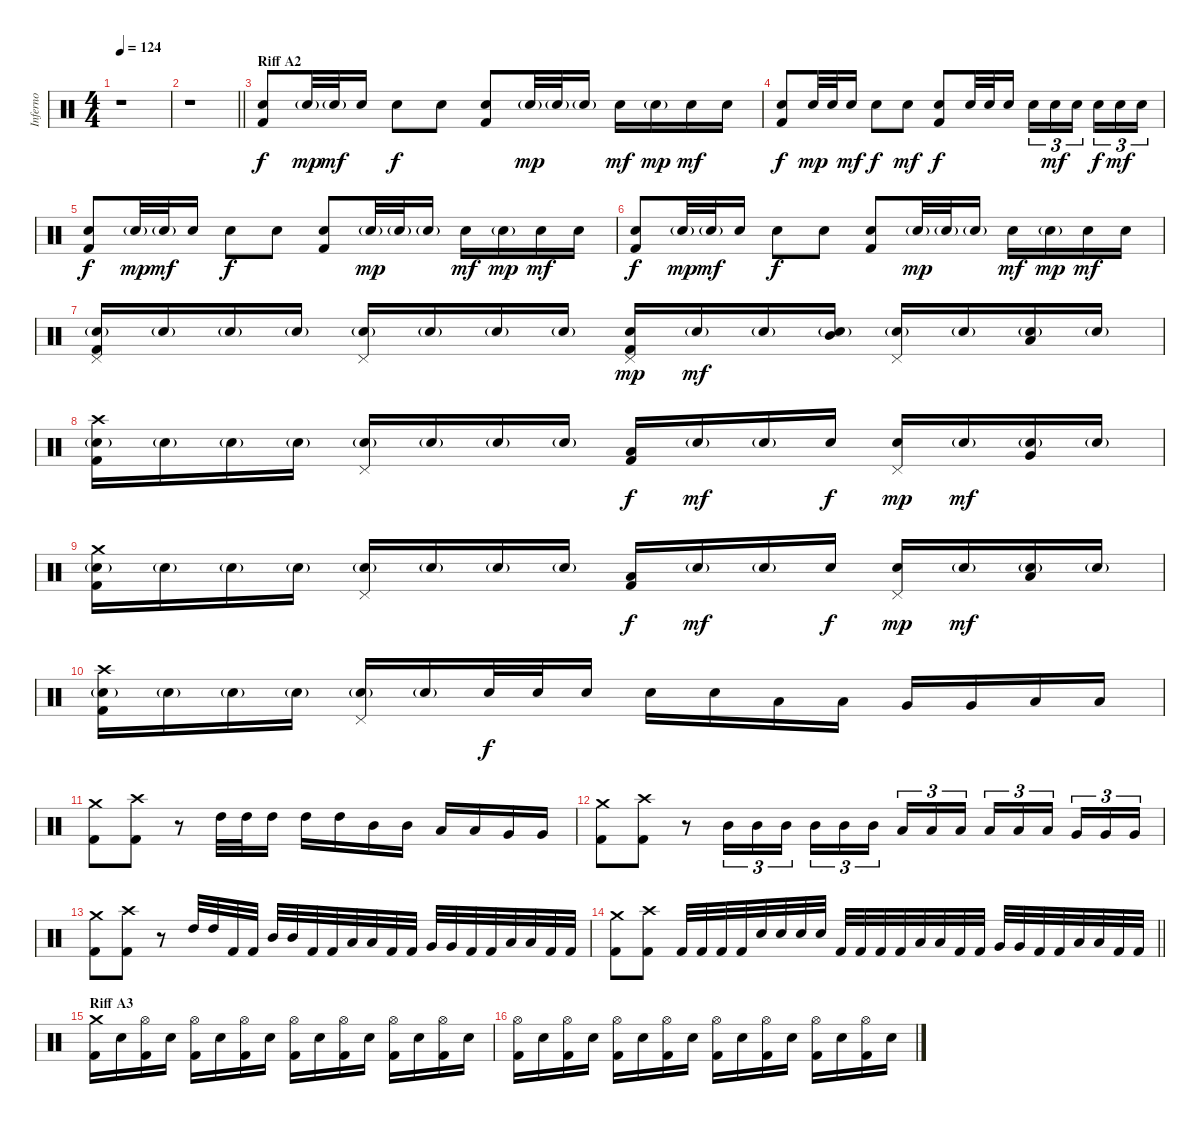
\track ("Inferno" "Inferno") {instrument percussion}
\staff {score}
\articulation defaults
\ts (4 4)
\tempo 124
\clef neutral
\ks c
r.1{dy f} |
\barLineRight lightlight
r.1 |
\section ("" "Riff A2")
("Snare (hit) 2" "Kick (hit) 2").8 "Snare (hit) 2"{g}.32{dy mp} "Snare (hit) 2"{g}.32{dy mf} "Snare (hit) 2".16 "Snare (hit) 2".8{dy f} "Snare (hit) 2".8 ("Snare (hit) 2" "Kick (hit) 2").8 "Snare (hit) 2"{g}.32{dy mp} "Snare (hit) 2"{g}.32 "Snare (hit) 2"{g}.16 "Snare (hit) 2".16{dy mf} "Snare (hit) 2"{g}.16{dy mp} "Snare (hit) 2".16{dy mf} "Snare (hit) 2".16 |
("Snare (hit) 2" "Kick (hit) 2").8{dy f} "Snare (hit) 2".32{dy mp} "Snare (hit) 2".32 "Snare (hit) 2".16{dy mf} "Snare (hit) 2".8{dy f} "Snare (hit) 2".8{dy mf} ("Snare (hit) 2" "Kick (hit) 2").8{dy f} "Snare (hit) 2".32 "Snare (hit) 2".32 "Snare (hit) 2".16 "Snare (hit) 2".16{tu (3 2)} "Snare (hit) 2".16{tu (3 2) dy mf} "Snare (hit) 2".16{tu (3 2) beam splitsecondary} "Snare (hit) 2".16{tu (3 2) dy f} "Snare (hit) 2".16{tu (3 2) dy mf} "Snare (hit) 2".16{tu (3 2)} |
("Snare (hit) 2" "Kick (hit) 2").8{dy f} "Snare (hit) 2"{g}.32{dy mp} "Snare (hit) 2"{g}.32{dy mf} "Snare (hit) 2".16 "Snare (hit) 2".8{dy f} "Snare (hit) 2".8 ("Snare (hit) 2" "Kick (hit) 2").8 "Snare (hit) 2"{g}.32{dy mp} "Snare (hit) 2"{g}.32 "Snare (hit) 2"{g}.16 "Snare (hit) 2".16{dy mf} "Snare (hit) 2"{g}.16{dy mp} "Snare (hit) 2".16{dy mf} "Snare (hit) 2".16 |
("Snare (hit) 2" "Kick (hit) 2").8{dy f} "Snare (hit) 2"{g}.32{dy mp} "Snare (hit) 2"{g}.32{dy mf} "Snare (hit) 2".16 "Snare (hit) 2".8{dy f} "Snare (hit) 2".8 ("Snare (hit) 2" "Kick (hit) 2").8 "Snare (hit) 2"{g}.32{dy mp} "Snare (hit) 2"{g}.32 "Snare (hit) 2"{g}.16 "Snare (hit) 2".16{dy mf} "Snare (hit) 2"{g}.16{dy mp} "Snare (hit) 2".16{dy mf} "Snare (hit) 2".16 |
("Pedal Hi-Hat (hit)" "Snare (hit) 2"{g} "Kick (hit) 2").16 "Snare (hit) 2"{g}.16 "Snare (hit) 2"{g}.16 "Snare (hit) 2"{g}.16 ("Pedal Hi-Hat (hit)" "Snare (hit) 2"{g}).16 "Snare (hit) 2"{g}.16 "Snare (hit) 2"{g}.16 "Snare (hit) 2"{g}.16 ("Pedal Hi-Hat (hit)" "Snare (hit) 2" "Kick (hit) 2").16{dy mp} "Snare (hit) 2"{g}.16{dy mf} "Snare (hit) 2"{g}.16 ("Mid Tom (hit)" "Snare (hit) 2"{g}).16 ("Pedal Hi-Hat (hit)" "Snare (hit) 2"{g}).16 "Snare (hit) 2"{g}.16 ("Low Tom (hit)" "Snare (hit) 2"{g}).16 "Snare (hit) 2"{g}.16 |
("Crash high (hit)" "Snare (hit) 2"{g} "Kick (hit) 2").16 "Snare (hit) 2"{g}.16 "Snare (hit) 2"{g}.16 "Snare (hit) 2"{g}.16 ("Pedal Hi-Hat (hit)" "Snare (hit) 2"{g}).16 "Snare (hit) 2"{g}.16 "Snare (hit) 2"{g}.16 "Snare (hit) 2"{g}.16 ("Low Tom (hit)" "Kick (hit) 2").16{dy f} "Snare (hit) 2"{g}.16{dy mf} "Snare (hit) 2"{g}.16 "Snare (hit) 2".16{dy f} ("Pedal Hi-Hat (hit)" "Snare (hit) 2").16{dy mp} "Snare (hit) 2"{g}.16{dy mf} ("Very Low Tom (hit)" "Snare (hit) 2"{g}).16 "Snare (hit) 2"{g}.16 |
("Crash medium (hit)" "Snare (hit) 2"{g} "Kick (hit) 2").16 "Snare (hit) 2"{g}.16 "Snare (hit) 2"{g}.16 "Snare (hit) 2"{g}.16 ("Pedal Hi-Hat (hit)" "Snare (hit) 2"{g}).16 "Snare (hit) 2"{g}.16 "Snare (hit) 2"{g}.16 "Snare (hit) 2"{g}.16 ("Low Tom (hit)" "Kick (hit) 2").16{dy f} "Snare (hit) 2"{g}.16{dy mf} "Snare (hit) 2"{g}.16 "Snare (hit) 2".16{dy f} ("Pedal Hi-Hat (hit)" "Snare (hit) 2").16{dy mp} "Snare (hit) 2"{g}.16{dy mf} ("Low Floor Tom (hit)" "Snare (hit) 2"{g}).16 "Snare (hit) 2"{g}.16 |
("Crash high (hit)" "Snare (hit) 2"{g} "Kick (hit) 2").16 "Snare (hit) 2"{g}.16 "Snare (hit) 2"{g}.16 "Snare (hit) 2"{g}.16 ("Pedal Hi-Hat (hit)" "Snare (hit) 2"{g}).16 "Snare (hit) 2"{g}.16 "Snare (hit) 2".32{dy f} "Snare (hit) 2".32 "Snare (hit) 2".16 "Snare (hit) 2".16 "Snare (hit) 2".16 "Low Tom (hit)".16 "Low Tom (hit)".16 "Very Low Tom (hit)".16 "Very Low Tom (hit)".16 "Low Floor Tom (hit)".16 "Low Floor Tom (hit)".16 |
("Crash medium (hit)" "Kick (hit) 2").8 ("Crash high (hit)" "Kick (hit) 2").8 r.8 "High Tom (hit)".32 "High Tom (hit)".32 "High Tom (hit)".16 "High Tom (hit)".16 "High Tom (hit)".16 "Mid Tom (hit)".16 "Mid Tom (hit)".16 "Low Tom (hit)".16 "Low Tom (hit)".16 "Very Low Tom (hit)".16 "Very Low Tom (hit)".16 |
("Crash medium (hit)" "Kick (hit) 2").8 ("Crash high (hit)" "Kick (hit) 2").8 r.8 "Mid Tom (hit)".16{tu (3 2)} "Mid Tom (hit)".16{tu (3 2)} "Mid Tom (hit)".16{tu (3 2)} "Mid Tom (hit)".16{tu (3 2)} "Mid Tom (hit)".16{tu (3 2)} "Mid Tom (hit)".16{tu (3 2) beam splitsecondary} "Low Tom (hit)".16{tu (3 2)} "Low Tom (hit)".16{tu (3 2)} "Low Tom (hit)".16{tu (3 2)} "Low Tom (hit)".16{tu (3 2)} "Low Tom (hit)".16{tu (3 2)} "Low Tom (hit)".16{tu (3 2) beam splitsecondary} "Very Low Tom (hit)".16{tu (3 2)} "Very Low Tom (hit)".16{tu (3 2)} "Very Low Tom (hit)".16{tu (3 2)} |
("Crash medium (hit)" "Kick (hit) 2").8 ("Crash high (hit)" "Kick (hit) 2").8 r.8 "High Tom (hit)".32 "High Tom (hit)".32 "Kick (hit) 2".32 "Kick (hit) 2".32 "Mid Tom (hit)".32 "Mid Tom (hit)".32 "Kick (hit) 2".32 "Kick (hit) 2".32 "Low Tom (hit)".32 "Low Tom (hit)".32 "Kick (hit) 2".32 "Kick (hit) 2".32 "Very Low Tom (hit)".32 "Very Low Tom (hit)".32 "Kick (hit) 2".32 "Kick (hit) 2".32 "Low Floor Tom (hit)".32 "Low Floor Tom (hit)".32 "Kick (hit) 2".32 "Kick (hit) 2".32 |
\barLineRight lightlight
("Crash medium (hit)" "Kick (hit) 2").8 ("Crash high (hit)" "Kick (hit) 2").8 "Kick (hit) 2".32 "Kick (hit) 2".32 "Kick (hit) 2".32 "Kick (hit) 2".32 "Snare (hit) 2".32 "Snare (hit) 2".32 "Snare (hit) 2".32 "Snare (hit) 2".32 "Kick (hit) 2".32 "Kick (hit) 2".32 "Kick (hit) 2".32 "Kick (hit) 2".32 "Low Tom (hit)".32 "Low Tom (hit)".32 "Kick (hit) 2".32 "Kick (hit) 2".32 "Very Low Tom (hit)".32 "Very Low Tom (hit)".32 "Kick (hit) 2".32 "Kick (hit) 2".32 "Low Floor Tom (hit)".32 "Low Floor Tom (hit)".32 "Kick (hit) 2".32 "Kick (hit) 2".32 |
\section ("" "Riff A3")
("Crash medium (hit)" "Kick (hit) 2").16 "Snare (hit) 2".16 ("Hi-Hat (open)" "Kick (hit) 2").16 "Snare (hit) 2".16 ("Hi-Hat (open)" "Kick (hit) 2").16 "Snare (hit) 2".16 ("Hi-Hat (open)" "Kick (hit) 2").16 "Snare (hit) 2".16 ("Hi-Hat (open)" "Kick (hit) 2").16 "Snare (hit) 2".16 ("Hi-Hat (open)" "Kick (hit) 2").16 "Snare (hit) 2".16 ("Hi-Hat (open)" "Kick (hit) 2").16 "Snare (hit) 2".16 ("Hi-Hat (open)" "Kick (hit) 2").16 "Snare (hit) 2".16 |
("Hi-Hat (open)" "Kick (hit) 2").16 "Snare (hit) 2".16 ("Hi-Hat (open)" "Kick (hit) 2").16 "Snare (hit) 2".16 ("Hi-Hat (open)" "Kick (hit) 2").16 "Snare (hit) 2".16 ("Hi-Hat (open)" "Kick (hit) 2").16 "Snare (hit) 2".16 ("Hi-Hat (open)" "Kick (hit) 2").16 "Snare (hit) 2".16 ("Hi-Hat (open)" "Kick (hit) 2").16 "Snare (hit) 2".16 ("Hi-Hat (open)" "Kick (hit) 2").16 "Snare (hit) 2".16 ("Hi-Hat (open)" "Kick (hit) 2").16 "Snare (hit) 2".16
